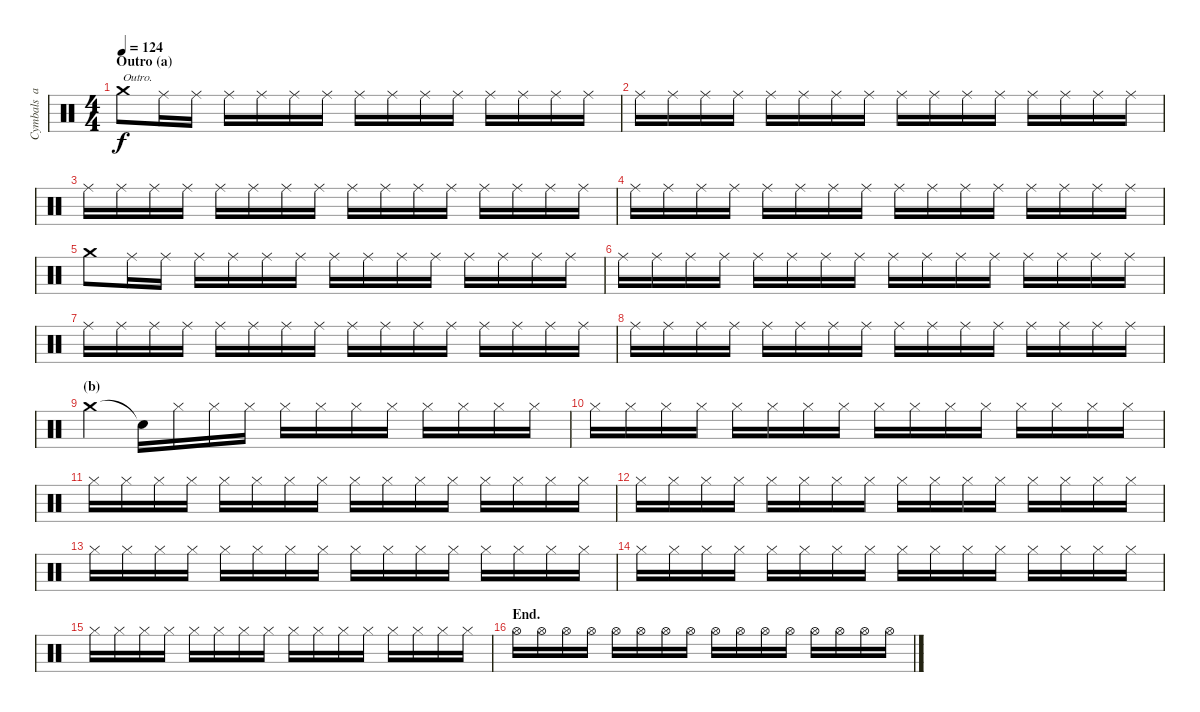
\track ("Cymbals  and Hi-hat" "Cymbals  a") {instrument percussion}
\staff {score}
\articulation defaults
\ts (4 4)
\section ("" "Outro (a)")
\tempo 124
\clef neutral
\ks c "Crash medium (hit)".8{txt "Outro." dy f} "Ride (middle)".16 "Ride (middle)".16 "Ride (middle)".16 "Ride (middle)".16 "Ride (middle)".16 "Ride (middle)".16 "Ride (middle)".16 "Ride (middle)".16 "Ride (middle)".16 "Ride (middle)".16 "Ride (middle)".16 "Ride (middle)".16 "Ride (middle)".16 "Ride (middle)".16
|
"Ride (middle)".16 "Ride (middle)".16 "Ride (middle)".16 "Ride (middle)".16 "Ride (middle)".16 "Ride (middle)".16 "Ride (middle)".16 "Ride (middle)".16 "Ride (middle)".16 "Ride (middle)".16 "Ride (middle)".16 "Ride (middle)".16 "Ride (middle)".16 "Ride (middle)".16 "Ride (middle)".16 "Ride (middle)".16 |
"Ride (middle)".16 "Ride (middle)".16 "Ride (middle)".16 "Ride (middle)".16 "Ride (middle)".16 "Ride (middle)".16 "Ride (middle)".16 "Ride (middle)".16 "Ride (middle)".16 "Ride (middle)".16 "Ride (middle)".16 "Ride (middle)".16 "Ride (middle)".16 "Ride (middle)".16 "Ride (middle)".16 "Ride (middle)".16 |
"Ride (middle)".16 "Ride (middle)".16 "Ride (middle)".16 "Ride (middle)".16 "Ride (middle)".16 "Ride (middle)".16 "Ride (middle)".16 "Ride (middle)".16 "Ride (middle)".16 "Ride (middle)".16 "Ride (middle)".16 "Ride (middle)".16 "Ride (middle)".16 "Ride (middle)".16 "Ride (middle)".16 "Ride (middle)".16 |
"Crash medium (hit)".8 "Ride (middle)".16 "Ride (middle)".16 "Ride (middle)".16 "Ride (middle)".16 "Ride (middle)".16 "Ride (middle)".16 "Ride (middle)".16 "Ride (middle)".16 "Ride (middle)".16 "Ride (middle)".16 "Ride (middle)".16 "Ride (middle)".16 "Ride (middle)".16 "Ride (middle)".16 |
"Ride (middle)".16 "Ride (middle)".16 "Ride (middle)".16 "Ride (middle)".16 "Ride (middle)".16 "Ride (middle)".16 "Ride (middle)".16 "Ride (middle)".16 "Ride (middle)".16 "Ride (middle)".16 "Ride (middle)".16 "Ride (middle)".16 "Ride (middle)".16 "Ride (middle)".16 "Ride (middle)".16 "Ride (middle)".16 |
"Ride (middle)".16 "Ride (middle)".16 "Ride (middle)".16 "Ride (middle)".16 "Ride (middle)".16 "Ride (middle)".16 "Ride (middle)".16 "Ride (middle)".16 "Ride (middle)".16 "Ride (middle)".16 "Ride (middle)".16 "Ride (middle)".16 "Ride (middle)".16 "Ride (middle)".16 "Ride (middle)".16 "Ride (middle)".16 |
"Ride (middle)".16 "Ride (middle)".16 "Ride (middle)".16 "Ride (middle)".16 "Ride (middle)".16 "Ride (middle)".16 "Ride (middle)".16 "Ride (middle)".16 "Ride (middle)".16 "Ride (middle)".16 "Ride (middle)".16 "Ride (middle)".16 "Ride (middle)".16 "Ride (middle)".16 "Ride (middle)".16 "Ride (middle)".16 |
\section ("" "(b)")
"Crash medium (hit)".4 "Snare (hit)"{t}.16 "Hi-Hat (closed)".16 "Hi-Hat (closed)".16 "Hi-Hat (closed)".16 "Hi-Hat (closed)".16 "Hi-Hat (closed)".16 "Hi-Hat (closed)".16 "Hi-Hat (closed)".16 "Hi-Hat (closed)".16 "Hi-Hat (closed)".16 "Hi-Hat (closed)".16 "Hi-Hat (closed)".16 |
"Hi-Hat (closed)".16 "Hi-Hat (closed)".16 "Hi-Hat (closed)".16 "Hi-Hat (closed)".16 "Hi-Hat (closed)".16 "Hi-Hat (closed)".16 "Hi-Hat (closed)".16 "Hi-Hat (closed)".16 "Hi-Hat (closed)".16 "Hi-Hat (closed)".16 "Hi-Hat (closed)".16 "Hi-Hat (closed)".16 "Hi-Hat (closed)".16 "Hi-Hat (closed)".16 "Hi-Hat (closed)".16 "Hi-Hat (closed)".16 |
"Hi-Hat (closed)".16 "Hi-Hat (closed)".16 "Hi-Hat (closed)".16 "Hi-Hat (closed)".16 "Hi-Hat (closed)".16 "Hi-Hat (closed)".16 "Hi-Hat (closed)".16 "Hi-Hat (closed)".16 "Hi-Hat (closed)".16 "Hi-Hat (closed)".16 "Hi-Hat (closed)".16 "Hi-Hat (closed)".16 "Hi-Hat (closed)".16 "Hi-Hat (closed)".16 "Hi-Hat (closed)".16 "Hi-Hat (closed)".16 |
"Hi-Hat (closed)".16 "Hi-Hat (closed)".16 "Hi-Hat (closed)".16 "Hi-Hat (closed)".16 "Hi-Hat (closed)".16 "Hi-Hat (closed)".16 "Hi-Hat (closed)".16 "Hi-Hat (closed)".16 "Hi-Hat (closed)".16 "Hi-Hat (closed)".16 "Hi-Hat (closed)".16 "Hi-Hat (closed)".16 "Hi-Hat (closed)".16 "Hi-Hat (closed)".16 "Hi-Hat (closed)".16 "Hi-Hat (closed)".16 |
"Hi-Hat (closed)".16 "Hi-Hat (closed)".16 "Hi-Hat (closed)".16 "Hi-Hat (closed)".16 "Hi-Hat (closed)".16 "Hi-Hat (closed)".16 "Hi-Hat (closed)".16 "Hi-Hat (closed)".16 "Hi-Hat (closed)".16 "Hi-Hat (closed)".16 "Hi-Hat (closed)".16 "Hi-Hat (closed)".16 "Hi-Hat (closed)".16 "Hi-Hat (closed)".16 "Hi-Hat (closed)".16 "Hi-Hat (closed)".16 |
"Hi-Hat (closed)".16 "Hi-Hat (closed)".16 "Hi-Hat (closed)".16 "Hi-Hat (closed)".16 "Hi-Hat (closed)".16 "Hi-Hat (closed)".16 "Hi-Hat (closed)".16 "Hi-Hat (closed)".16 "Hi-Hat (closed)".16 "Hi-Hat (closed)".16 "Hi-Hat (closed)".16 "Hi-Hat (closed)".16 "Hi-Hat (closed)".16 "Hi-Hat (closed)".16 "Hi-Hat (closed)".16 "Hi-Hat (closed)".16 |
"Hi-Hat (closed)".16 "Hi-Hat (closed)".16 "Hi-Hat (closed)".16 "Hi-Hat (closed)".16 "Hi-Hat (closed)".16 "Hi-Hat (closed)".16 "Hi-Hat (closed)".16 "Hi-Hat (closed)".16 "Hi-Hat (closed)".16 "Hi-Hat (closed)".16 "Hi-Hat (closed)".16 "Hi-Hat (closed)".16 "Hi-Hat (closed)".16 "Hi-Hat (closed)".16 "Hi-Hat (closed)".16 "Hi-Hat (closed)".16 |
\section ("" "End.")
"Hi-Hat (open)".16 "Hi-Hat (open)".16 "Hi-Hat (open)".16 "Hi-Hat (open)".16 "Hi-Hat (open)".16 "Hi-Hat (open)".16 "Hi-Hat (open)".16 "Hi-Hat (open)".16 "Hi-Hat (open)".16 "Hi-Hat (open)".16 "Hi-Hat (open)".16 "Hi-Hat (open)".16 "Hi-Hat (open)".16 "Hi-Hat (open)".16 "Hi-Hat (open)".16 "Hi-Hat (open)".16
